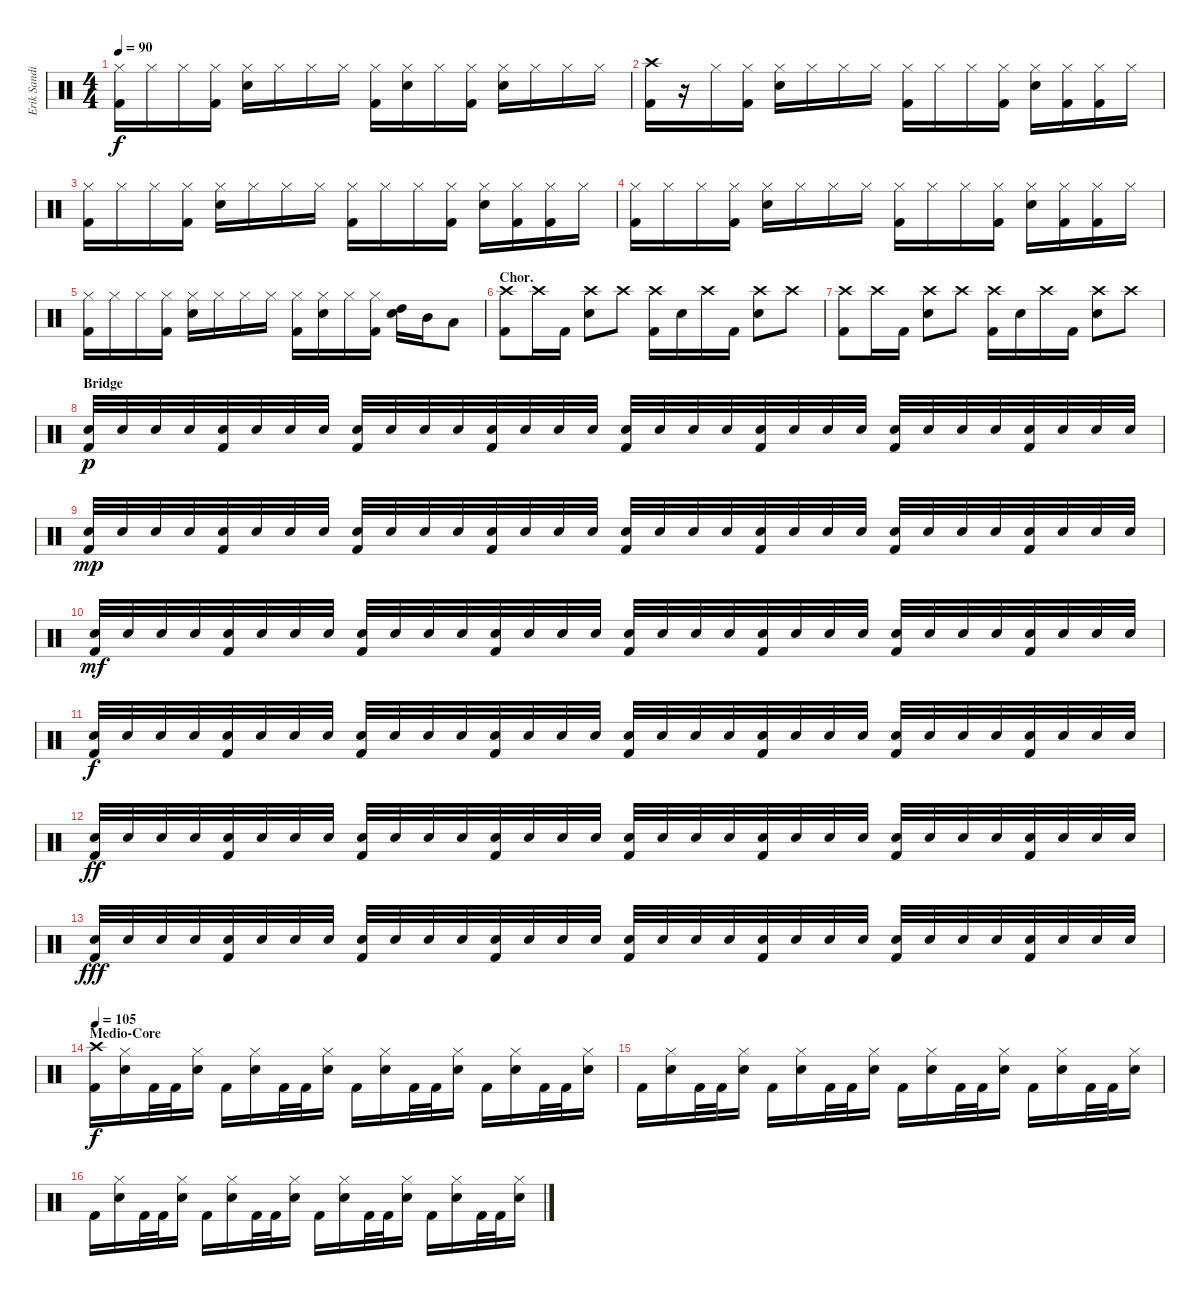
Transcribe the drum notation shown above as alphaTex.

\track ("Erik Sandin" "Erik Sandi") {instrument percussion}
\staff {score}
\articulation defaults
\ts (4 4)
\tempo 90
\clef neutral
\ks c
("Hi-Hat (closed)" "Kick (hit) 2").16{dy f} "Hi-Hat (closed)".16 "Hi-Hat (closed)".16 ("Hi-Hat (closed)" "Kick (hit) 2").16 ("Hi-Hat (closed)" "Electric Snare (hit)").16 "Hi-Hat (closed)".16 "Hi-Hat (closed)".16 "Hi-Hat (closed)".16 ("Hi-Hat (closed)" "Kick (hit) 2").16 ("Hi-Hat (closed)" "Electric Snare (hit)").16 "Hi-Hat (closed)".16 ("Hi-Hat (closed)" "Kick (hit) 2").16 ("Hi-Hat (closed)" "Electric Snare (hit)").16 "Hi-Hat (closed)".16 "Hi-Hat (closed)".16 "Hi-Hat (closed)".16 |
("Crash high (hit)" "Kick (hit) 2").16 r.16 "Hi-Hat (closed)".16 ("Hi-Hat (closed)" "Kick (hit) 2").16 ("Hi-Hat (closed)" "Electric Snare (hit)").16 "Hi-Hat (closed)".16 "Hi-Hat (closed)".16 "Hi-Hat (closed)".16 ("Hi-Hat (closed)" "Kick (hit) 2").16 "Hi-Hat (closed)".16 "Hi-Hat (closed)".16 ("Hi-Hat (closed)" "Kick (hit) 2").16 ("Hi-Hat (closed)" "Electric Snare (hit)").16 ("Hi-Hat (closed)" "Kick (hit) 2").16 ("Hi-Hat (closed)" "Kick (hit) 2").16 "Hi-Hat (closed)".16 |
("Hi-Hat (closed)" "Kick (hit) 2").16 "Hi-Hat (closed)".16 "Hi-Hat (closed)".16 ("Hi-Hat (closed)" "Kick (hit) 2").16 ("Hi-Hat (closed)" "Electric Snare (hit)").16 "Hi-Hat (closed)".16 "Hi-Hat (closed)".16 "Hi-Hat (closed)".16 ("Hi-Hat (closed)" "Kick (hit) 2").16 "Hi-Hat (closed)".16 "Hi-Hat (closed)".16 ("Hi-Hat (closed)" "Kick (hit) 2").16 ("Hi-Hat (closed)" "Electric Snare (hit)").16 ("Hi-Hat (closed)" "Kick (hit) 2").16 ("Hi-Hat (closed)" "Kick (hit) 2").16 "Hi-Hat (closed)".16 |
("Hi-Hat (closed)" "Kick (hit) 2").16 "Hi-Hat (closed)".16 "Hi-Hat (closed)".16 ("Hi-Hat (closed)" "Kick (hit) 2").16 ("Hi-Hat (closed)" "Electric Snare (hit)").16 "Hi-Hat (closed)".16 "Hi-Hat (closed)".16 "Hi-Hat (closed)".16 ("Hi-Hat (closed)" "Kick (hit) 2").16 "Hi-Hat (closed)".16 "Hi-Hat (closed)".16 ("Hi-Hat (closed)" "Kick (hit) 2").16 ("Hi-Hat (closed)" "Electric Snare (hit)").16 ("Hi-Hat (closed)" "Kick (hit) 2").16 ("Hi-Hat (closed)" "Kick (hit) 2").16 "Hi-Hat (closed)".16 |
("Hi-Hat (closed)" "Kick (hit) 2").16 "Hi-Hat (closed)".16 "Hi-Hat (closed)".16 ("Hi-Hat (closed)" "Kick (hit) 2").16 ("Hi-Hat (closed)" "Electric Snare (hit)").16 "Hi-Hat (closed)".16 "Hi-Hat (closed)".16 "Hi-Hat (closed)".16 ("Hi-Hat (closed)" "Kick (hit) 2").16 ("Hi-Hat (closed)" "Electric Snare (hit)").16 "Hi-Hat (closed)".16 ("Hi-Hat (closed)" "Kick (hit) 2").16 ("High Tom (hit)" "Electric Snare (hit)").16 "Mid Tom (hit)".16 "Low Tom (hit)".8 |
\section ("" "Chor.")
("Crash high (hit)" "Kick (hit) 2").8 "Crash high (hit)".16 "Kick (hit) 2".16 ("Crash high (hit)" "Electric Snare (hit)").8 "Crash high (hit)".8 ("Crash high (hit)" "Kick (hit) 2").16 "Electric Snare (hit)".16 "Crash high (hit)".16 "Kick (hit) 2".16 ("Crash high (hit)" "Electric Snare (hit)").8 "Crash high (hit)".8 |
("Crash high (hit)" "Kick (hit) 2").8 "Crash high (hit)".16 "Kick (hit) 2".16 ("Crash high (hit)" "Electric Snare (hit)").8 "Crash high (hit)".8 ("Crash high (hit)" "Kick (hit) 2").16 "Electric Snare (hit)".16 "Crash high (hit)".16 "Kick (hit) 2".16 ("Crash high (hit)" "Electric Snare (hit)").8 "Crash high (hit)".8 |
\section ("" "Bridge")
("Electric Snare (hit)" "Kick (hit) 2").32{dy p} "Electric Snare (hit)".32 "Electric Snare (hit)".32 "Electric Snare (hit)".32 ("Electric Snare (hit)" "Kick (hit) 2").32 "Electric Snare (hit)".32 "Electric Snare (hit)".32 "Electric Snare (hit)".32 ("Electric Snare (hit)" "Kick (hit) 2").32 "Electric Snare (hit)".32 "Electric Snare (hit)".32 "Electric Snare (hit)".32 ("Electric Snare (hit)" "Kick (hit) 2").32 "Electric Snare (hit)".32 "Electric Snare (hit)".32 "Electric Snare (hit)".32 ("Electric Snare (hit)" "Kick (hit) 2").32 "Electric Snare (hit)".32 "Electric Snare (hit)".32 "Electric Snare (hit)".32 ("Electric Snare (hit)" "Kick (hit) 2").32 "Electric Snare (hit)".32 "Electric Snare (hit)".32 "Electric Snare (hit)".32 ("Electric Snare (hit)" "Kick (hit) 2").32 "Electric Snare (hit)".32 "Electric Snare (hit)".32 "Electric Snare (hit)".32 ("Electric Snare (hit)" "Kick (hit) 2").32 "Electric Snare (hit)".32 "Electric Snare (hit)".32 "Electric Snare (hit)".32 |
("Electric Snare (hit)" "Kick (hit) 2").32{dy mp} "Electric Snare (hit)".32 "Electric Snare (hit)".32 "Electric Snare (hit)".32 ("Electric Snare (hit)" "Kick (hit) 2").32 "Electric Snare (hit)".32 "Electric Snare (hit)".32 "Electric Snare (hit)".32 ("Electric Snare (hit)" "Kick (hit) 2").32 "Electric Snare (hit)".32 "Electric Snare (hit)".32 "Electric Snare (hit)".32 ("Electric Snare (hit)" "Kick (hit) 2").32 "Electric Snare (hit)".32 "Electric Snare (hit)".32 "Electric Snare (hit)".32 ("Electric Snare (hit)" "Kick (hit) 2").32 "Electric Snare (hit)".32 "Electric Snare (hit)".32 "Electric Snare (hit)".32 ("Electric Snare (hit)" "Kick (hit) 2").32 "Electric Snare (hit)".32 "Electric Snare (hit)".32 "Electric Snare (hit)".32 ("Electric Snare (hit)" "Kick (hit) 2").32 "Electric Snare (hit)".32 "Electric Snare (hit)".32 "Electric Snare (hit)".32 ("Electric Snare (hit)" "Kick (hit) 2").32 "Electric Snare (hit)".32 "Electric Snare (hit)".32 "Electric Snare (hit)".32 |
("Electric Snare (hit)" "Kick (hit) 2").32{dy mf} "Electric Snare (hit)".32 "Electric Snare (hit)".32 "Electric Snare (hit)".32 ("Electric Snare (hit)" "Kick (hit) 2").32 "Electric Snare (hit)".32 "Electric Snare (hit)".32 "Electric Snare (hit)".32 ("Electric Snare (hit)" "Kick (hit) 2").32 "Electric Snare (hit)".32 "Electric Snare (hit)".32 "Electric Snare (hit)".32 ("Electric Snare (hit)" "Kick (hit) 2").32 "Electric Snare (hit)".32 "Electric Snare (hit)".32 "Electric Snare (hit)".32 ("Electric Snare (hit)" "Kick (hit) 2").32 "Electric Snare (hit)".32 "Electric Snare (hit)".32 "Electric Snare (hit)".32 ("Electric Snare (hit)" "Kick (hit) 2").32 "Electric Snare (hit)".32 "Electric Snare (hit)".32 "Electric Snare (hit)".32 ("Electric Snare (hit)" "Kick (hit) 2").32 "Electric Snare (hit)".32 "Electric Snare (hit)".32 "Electric Snare (hit)".32 ("Electric Snare (hit)" "Kick (hit) 2").32 "Electric Snare (hit)".32 "Electric Snare (hit)".32 "Electric Snare (hit)".32 |
("Electric Snare (hit)" "Kick (hit) 2").32{dy f} "Electric Snare (hit)".32 "Electric Snare (hit)".32 "Electric Snare (hit)".32 ("Electric Snare (hit)" "Kick (hit) 2").32 "Electric Snare (hit)".32 "Electric Snare (hit)".32 "Electric Snare (hit)".32 ("Electric Snare (hit)" "Kick (hit) 2").32 "Electric Snare (hit)".32 "Electric Snare (hit)".32 "Electric Snare (hit)".32 ("Electric Snare (hit)" "Kick (hit) 2").32 "Electric Snare (hit)".32 "Electric Snare (hit)".32 "Electric Snare (hit)".32 ("Electric Snare (hit)" "Kick (hit) 2").32 "Electric Snare (hit)".32 "Electric Snare (hit)".32 "Electric Snare (hit)".32 ("Electric Snare (hit)" "Kick (hit) 2").32 "Electric Snare (hit)".32 "Electric Snare (hit)".32 "Electric Snare (hit)".32 ("Electric Snare (hit)" "Kick (hit) 2").32 "Electric Snare (hit)".32 "Electric Snare (hit)".32 "Electric Snare (hit)".32 ("Electric Snare (hit)" "Kick (hit) 2").32 "Electric Snare (hit)".32 "Electric Snare (hit)".32 "Electric Snare (hit)".32 |
("Electric Snare (hit)" "Kick (hit) 2").32{dy ff} "Electric Snare (hit)".32 "Electric Snare (hit)".32 "Electric Snare (hit)".32 ("Electric Snare (hit)" "Kick (hit) 2").32 "Electric Snare (hit)".32 "Electric Snare (hit)".32 "Electric Snare (hit)".32 ("Electric Snare (hit)" "Kick (hit) 2").32 "Electric Snare (hit)".32 "Electric Snare (hit)".32 "Electric Snare (hit)".32 ("Electric Snare (hit)" "Kick (hit) 2").32 "Electric Snare (hit)".32 "Electric Snare (hit)".32 "Electric Snare (hit)".32 ("Electric Snare (hit)" "Kick (hit) 2").32 "Electric Snare (hit)".32 "Electric Snare (hit)".32 "Electric Snare (hit)".32 ("Electric Snare (hit)" "Kick (hit) 2").32 "Electric Snare (hit)".32 "Electric Snare (hit)".32 "Electric Snare (hit)".32 ("Electric Snare (hit)" "Kick (hit) 2").32 "Electric Snare (hit)".32 "Electric Snare (hit)".32 "Electric Snare (hit)".32 ("Electric Snare (hit)" "Kick (hit) 2").32 "Electric Snare (hit)".32 "Electric Snare (hit)".32 "Electric Snare (hit)".32 |
("Electric Snare (hit)" "Kick (hit) 2").32{dy fff} "Electric Snare (hit)".32 "Electric Snare (hit)".32 "Electric Snare (hit)".32 ("Electric Snare (hit)" "Kick (hit) 2").32 "Electric Snare (hit)".32 "Electric Snare (hit)".32 "Electric Snare (hit)".32 ("Electric Snare (hit)" "Kick (hit) 2").32 "Electric Snare (hit)".32 "Electric Snare (hit)".32 "Electric Snare (hit)".32 ("Electric Snare (hit)" "Kick (hit) 2").32 "Electric Snare (hit)".32 "Electric Snare (hit)".32 "Electric Snare (hit)".32 ("Electric Snare (hit)" "Kick (hit) 2").32 "Electric Snare (hit)".32 "Electric Snare (hit)".32 "Electric Snare (hit)".32 ("Electric Snare (hit)" "Kick (hit) 2").32 "Electric Snare (hit)".32 "Electric Snare (hit)".32 "Electric Snare (hit)".32 ("Electric Snare (hit)" "Kick (hit) 2").32 "Electric Snare (hit)".32 "Electric Snare (hit)".32 "Electric Snare (hit)".32 ("Electric Snare (hit)" "Kick (hit) 2").32 "Electric Snare (hit)".32 "Electric Snare (hit)".32 "Electric Snare (hit)".32 |
\section ("" "Medio-Core")
\tempo 105
("Crash high (hit)" "Kick (hit) 2").16{dy f} ("Hi-Hat (closed)" "Electric Snare (hit)").16 "Kick (hit) 2".32 "Kick (hit) 2".32 ("Hi-Hat (closed)" "Electric Snare (hit)").16 "Kick (hit) 2".16 ("Hi-Hat (closed)" "Electric Snare (hit)").16 "Kick (hit) 2".32 "Kick (hit) 2".32 ("Hi-Hat (closed)" "Electric Snare (hit)").16 "Kick (hit) 2".16 ("Hi-Hat (closed)" "Electric Snare (hit)").16 "Kick (hit) 2".32 "Kick (hit) 2".32 ("Hi-Hat (closed)" "Electric Snare (hit)").16 "Kick (hit) 2".16 ("Hi-Hat (closed)" "Electric Snare (hit)").16 "Kick (hit) 2".32 "Kick (hit) 2".32 ("Hi-Hat (closed)" "Electric Snare (hit)").16 |
"Kick (hit) 2".16 ("Hi-Hat (closed)" "Electric Snare (hit)").16 "Kick (hit) 2".32 "Kick (hit) 2".32 ("Hi-Hat (closed)" "Electric Snare (hit)").16 "Kick (hit) 2".16 ("Hi-Hat (closed)" "Electric Snare (hit)").16 "Kick (hit) 2".32 "Kick (hit) 2".32 ("Hi-Hat (closed)" "Electric Snare (hit)").16 "Kick (hit) 2".16 ("Hi-Hat (closed)" "Electric Snare (hit)").16 "Kick (hit) 2".32 "Kick (hit) 2".32 ("Hi-Hat (closed)" "Electric Snare (hit)").16 "Kick (hit) 2".16 ("Hi-Hat (closed)" "Electric Snare (hit)").16 "Kick (hit) 2".32 "Kick (hit) 2".32 ("Hi-Hat (closed)" "Electric Snare (hit)").16 |
"Kick (hit) 2".16 ("Hi-Hat (closed)" "Electric Snare (hit)").16 "Kick (hit) 2".32 "Kick (hit) 2".32 ("Hi-Hat (closed)" "Electric Snare (hit)").16 "Kick (hit) 2".16 ("Hi-Hat (closed)" "Electric Snare (hit)").16 "Kick (hit) 2".32 "Kick (hit) 2".32 ("Hi-Hat (closed)" "Electric Snare (hit)").16 "Kick (hit) 2".16 ("Hi-Hat (closed)" "Electric Snare (hit)").16 "Kick (hit) 2".32 "Kick (hit) 2".32 ("Hi-Hat (closed)" "Electric Snare (hit)").16 "Kick (hit) 2".16 ("Hi-Hat (closed)" "Electric Snare (hit)").16 "Kick (hit) 2".32 "Kick (hit) 2".32 ("Hi-Hat (closed)" "Electric Snare (hit)").16
